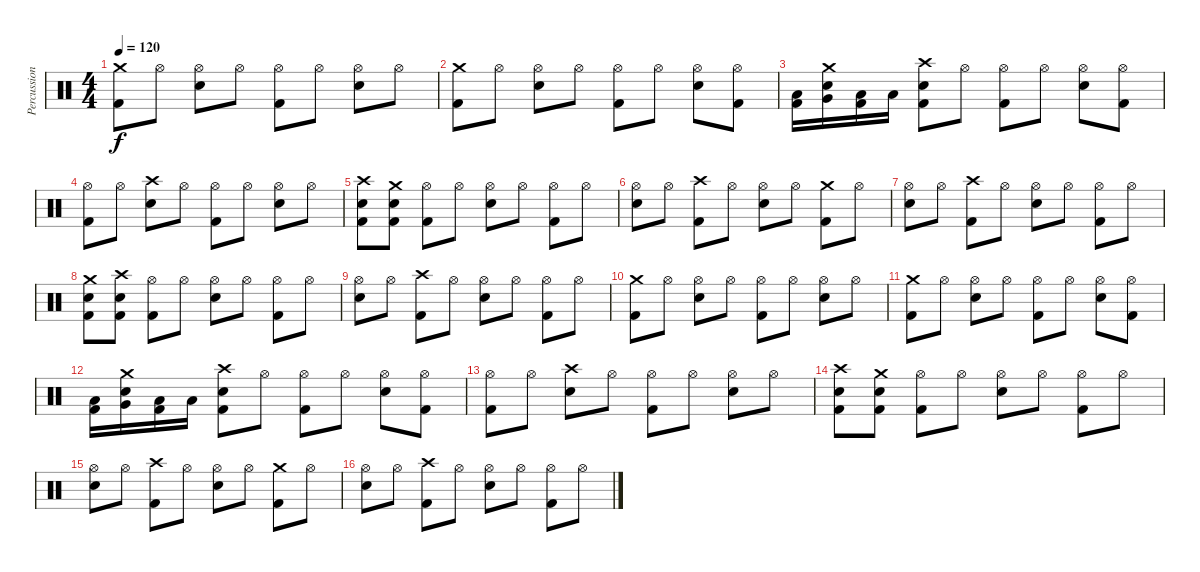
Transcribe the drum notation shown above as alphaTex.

\track ("Percussion" "Percussion") {instrument percussion}
\staff {score}
\articulation defaults
\ts (4 4)
\tempo 120
\clef neutral
\ks c
("Crash medium (hit)" "Kick (hit) 2").8{dy f} "Hi-Hat (open)".8 ("Hi-Hat (open)" "Snare (hit) 2").8 "Hi-Hat (open)".8 ("Hi-Hat (open)" "Kick (hit) 2").8 "Hi-Hat (open)".8 ("Hi-Hat (open)" "Snare (hit) 2").8 "Hi-Hat (open)".8 |
("Crash medium (hit)" "Kick (hit) 2").8 "Hi-Hat (open)".8 ("Hi-Hat (open)" "Snare (hit) 2").8 "Hi-Hat (open)".8 ("Hi-Hat (open)" "Kick (hit) 2").8 "Hi-Hat (open)".8 ("Hi-Hat (open)" "Snare (hit) 2").8 ("Hi-Hat (open)" "Kick (hit) 2").8 |
("Low Tom (hit)" "Kick (hit) 2").16 ("Very Low Tom (hit)" "Snare (hit) 2" "Crash medium (hit)").16 ("Low Floor Tom (hit)" "Kick (hit) 2").16 "Low Floor Tom (hit)".16 ("Crash high (hit)" "Snare (hit) 2" "Kick (hit) 2").8 "Hi-Hat (open)".8 ("Hi-Hat (open)" "Kick (hit) 2").8 "Hi-Hat (open)".8 ("Hi-Hat (open)" "Snare (hit) 2").8 ("Hi-Hat (open)" "Kick (hit) 2").8 |
("Hi-Hat (open)" "Kick (hit) 2").8 "Hi-Hat (open)".8 ("Crash high (hit)" "Snare (hit) 2").8 "Hi-Hat (open)".8 ("Hi-Hat (open)" "Kick (hit) 2").8 "Hi-Hat (open)".8 ("Hi-Hat (open)" "Snare (hit) 2").8 "Hi-Hat (open)".8 |
("Crash high (hit)" "Snare (hit) 2" "Kick (hit) 2").8 ("Crash medium (hit)" "Snare (hit) 2" "Kick (hit) 2").8 ("Hi-Hat (open)" "Kick (hit) 2").8 "Hi-Hat (open)".8 ("Hi-Hat (open)" "Snare (hit) 2").8 "Hi-Hat (open)".8 ("Hi-Hat (open)" "Kick (hit) 2").8 "Hi-Hat (open)".8 |
("Hi-Hat (open)" "Snare (hit) 2").8 "Hi-Hat (open)".8 ("Crash high (hit)" "Kick (hit) 2").8 "Hi-Hat (open)".8 ("Hi-Hat (open)" "Snare (hit) 2").8 "Hi-Hat (open)".8 ("Crash medium (hit)" "Kick (hit) 2").8 "Hi-Hat (open)".8 |
("Hi-Hat (open)" "Snare (hit) 2").8 "Hi-Hat (open)".8 ("Crash high (hit)" "Kick (hit) 2").8 "Hi-Hat (open)".8 ("Hi-Hat (open)" "Snare (hit) 2").8 "Hi-Hat (open)".8 ("Hi-Hat (open)" "Kick (hit) 2").8 "Hi-Hat (open)".8 |
("Crash medium (hit)" "Snare (hit) 2" "Kick (hit) 2").8 ("Crash high (hit)" "Snare (hit) 2" "Kick (hit) 2").8 ("Hi-Hat (open)" "Kick (hit) 2").8 "Hi-Hat (open)".8 ("Hi-Hat (open)" "Snare (hit) 2").8 "Hi-Hat (open)".8 ("Hi-Hat (open)" "Kick (hit) 2").8 "Hi-Hat (open)".8 |
("Hi-Hat (open)" "Snare (hit) 2").8 "Hi-Hat (open)".8 ("Crash high (hit)" "Kick (hit) 2").8 "Hi-Hat (open)".8 ("Hi-Hat (open)" "Snare (hit) 2").8 "Hi-Hat (open)".8 ("Hi-Hat (open)" "Kick (hit) 2").8 "Hi-Hat (open)".8 |
("Crash medium (hit)" "Kick (hit) 2").8 "Hi-Hat (open)".8 ("Hi-Hat (open)" "Snare (hit) 2").8 "Hi-Hat (open)".8 ("Hi-Hat (open)" "Kick (hit) 2").8 "Hi-Hat (open)".8 ("Hi-Hat (open)" "Snare (hit) 2").8 "Hi-Hat (open)".8 |
("Crash medium (hit)" "Kick (hit) 2").8 "Hi-Hat (open)".8 ("Hi-Hat (open)" "Snare (hit) 2").8 "Hi-Hat (open)".8 ("Hi-Hat (open)" "Kick (hit) 2").8 "Hi-Hat (open)".8 ("Hi-Hat (open)" "Snare (hit) 2").8 ("Hi-Hat (open)" "Kick (hit) 2").8 |
("Low Tom (hit)" "Kick (hit) 2").16 ("Very Low Tom (hit)" "Snare (hit) 2" "Crash medium (hit)").16 ("Low Floor Tom (hit)" "Kick (hit) 2").16 "Low Floor Tom (hit)".16 ("Crash high (hit)" "Snare (hit) 2" "Kick (hit) 2").8 "Hi-Hat (open)".8 ("Hi-Hat (open)" "Kick (hit) 2").8 "Hi-Hat (open)".8 ("Hi-Hat (open)" "Snare (hit) 2").8 ("Hi-Hat (open)" "Kick (hit) 2").8 |
("Hi-Hat (open)" "Kick (hit) 2").8 "Hi-Hat (open)".8 ("Crash high (hit)" "Snare (hit) 2").8 "Hi-Hat (open)".8 ("Hi-Hat (open)" "Kick (hit) 2").8 "Hi-Hat (open)".8 ("Hi-Hat (open)" "Snare (hit) 2").8 "Hi-Hat (open)".8 |
("Crash high (hit)" "Snare (hit) 2" "Kick (hit) 2").8 ("Crash medium (hit)" "Snare (hit) 2" "Kick (hit) 2").8 ("Hi-Hat (open)" "Kick (hit) 2").8 "Hi-Hat (open)".8 ("Hi-Hat (open)" "Snare (hit) 2").8 "Hi-Hat (open)".8 ("Hi-Hat (open)" "Kick (hit) 2").8 "Hi-Hat (open)".8 |
("Hi-Hat (open)" "Snare (hit) 2").8 "Hi-Hat (open)".8 ("Crash high (hit)" "Kick (hit) 2").8 "Hi-Hat (open)".8 ("Hi-Hat (open)" "Snare (hit) 2").8 "Hi-Hat (open)".8 ("Crash medium (hit)" "Kick (hit) 2").8 "Hi-Hat (open)".8 |
("Hi-Hat (open)" "Snare (hit) 2").8 "Hi-Hat (open)".8 ("Crash high (hit)" "Kick (hit) 2").8 "Hi-Hat (open)".8 ("Hi-Hat (open)" "Snare (hit) 2").8 "Hi-Hat (open)".8 ("Hi-Hat (open)" "Kick (hit) 2").8 "Hi-Hat (open)".8
